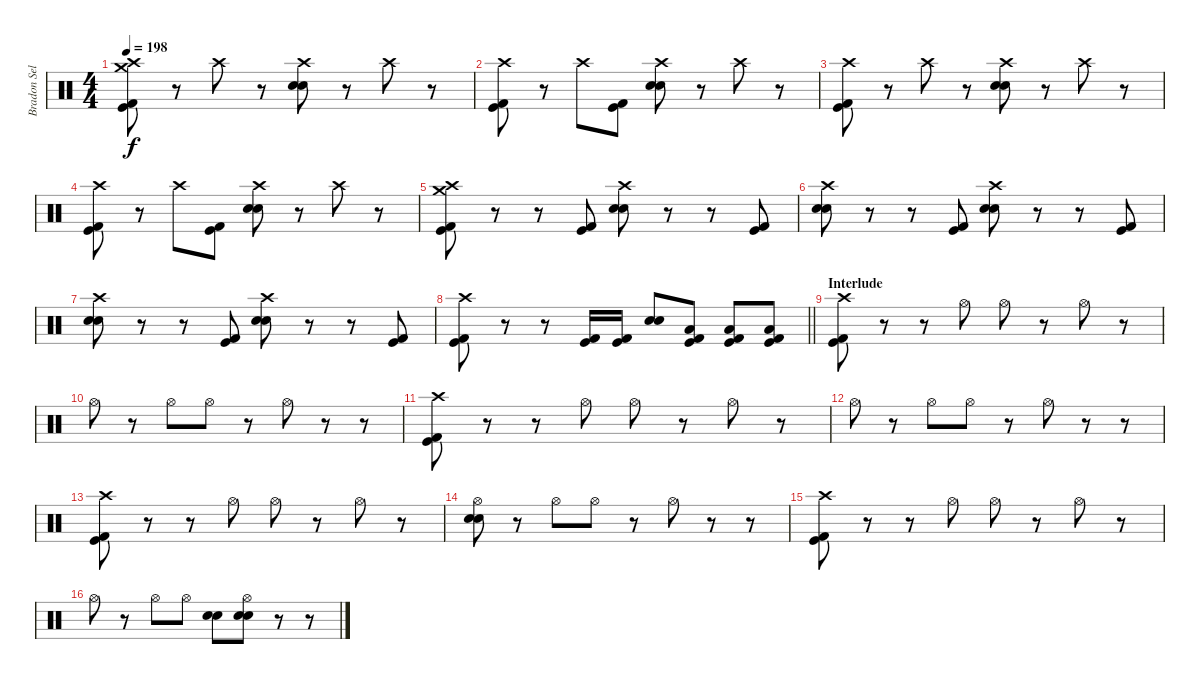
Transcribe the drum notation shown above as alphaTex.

\track ("Bradon Sellar" "Bradon Sel") {instrument percussion}
\staff {score}
\articulation defaults
\ts (4 4)
\tempo 198
\clef neutral
\ks c
("Crash medium (hit)" "Crash high (hit)" "Kick (hit) 2" "Kick (hit)").8{dy f} r.8 "Crash high (hit)".8 r.8 ("Crash high (hit)" "Electric Snare (hit)" "Snare (hit) 2").8 r.8 "Crash high (hit)".8 r.8 |
("Crash high (hit)" "Kick (hit) 2" "Kick (hit)").8 r.8 "Crash high (hit)".8 ("Kick (hit) 2" "Kick (hit)").8 ("Crash high (hit)" "Electric Snare (hit)" "Snare (hit) 2").8 r.8 "Crash high (hit)".8 r.8 |
("Crash high (hit)" "Kick (hit) 2" "Kick (hit)").8 r.8 "Crash high (hit)".8 r.8 ("Crash high (hit)" "Electric Snare (hit)" "Snare (hit) 2").8 r.8 "Crash high (hit)".8 r.8 |
("Crash high (hit)" "Kick (hit) 2" "Kick (hit)").8 r.8 "Crash high (hit)".8 ("Kick (hit) 2" "Kick (hit)").8 ("Crash high (hit)" "Electric Snare (hit)" "Snare (hit) 2").8 r.8 "Crash high (hit)".8 r.8 |
("Crash medium (hit)" "Crash high (hit)" "Kick (hit) 2" "Kick (hit)").8 r.8 r.8 ("Kick (hit) 2" "Kick (hit)").8 ("Crash high (hit)" "Electric Snare (hit)" "Snare (hit) 2").8 r.8 r.8 ("Kick (hit) 2" "Kick (hit)").8 |
("Crash high (hit)" "Electric Snare (hit)" "Snare (hit) 2").8 r.8 r.8 ("Kick (hit) 2" "Kick (hit)").8 ("Crash high (hit)" "Electric Snare (hit)" "Snare (hit) 2").8 r.8 r.8 ("Kick (hit) 2" "Kick (hit)").8 |
("Crash high (hit)" "Electric Snare (hit)" "Snare (hit) 2").8 r.8 r.8 ("Kick (hit) 2" "Kick (hit)").8 ("Crash high (hit)" "Electric Snare (hit)" "Snare (hit) 2").8 r.8 r.8 ("Kick (hit) 2" "Kick (hit)").8 |
\barLineRight lightlight
("Crash high (hit)" "Kick (hit) 2" "Kick (hit)").8 r.8 r.8 ("Kick (hit) 2" "Kick (hit)").16 ("Kick (hit) 2" "Kick (hit)").16 ("Electric Snare (hit)" "Snare (hit) 2").8 ("Kick (hit) 2" "Low Floor Tom (hit)" "Kick (hit)").8 ("Kick (hit) 2" "Low Floor Tom (hit)" "Kick (hit)").8 ("Kick (hit) 2" "Low Floor Tom (hit)" "Kick (hit)").8 |
\section ("" "Interlude")
("Crash high (hit)" "Kick (hit) 2" "Kick (hit)").8 r.8 r.8 "Hi-Hat (open)".8 "Hi-Hat (open)".8 r.8 "Hi-Hat (open)".8 r.8 |
"Hi-Hat (open)".8 r.8 "Hi-Hat (open)".8 "Hi-Hat (open)".8 r.8 "Hi-Hat (open)".8 r.8 r.8 |
("Crash high (hit)" "Kick (hit) 2" "Kick (hit)").8 r.8 r.8 "Hi-Hat (open)".8 "Hi-Hat (open)".8 r.8 "Hi-Hat (open)".8 r.8 |
"Hi-Hat (open)".8 r.8 "Hi-Hat (open)".8 "Hi-Hat (open)".8 r.8 "Hi-Hat (open)".8 r.8 r.8 |
("Crash high (hit)" "Kick (hit) 2" "Kick (hit)").8 r.8 r.8 "Hi-Hat (open)".8 "Hi-Hat (open)".8 r.8 "Hi-Hat (open)".8 r.8 |
("Hi-Hat (open)" "Electric Snare (hit)" "Snare (hit) 2").8 r.8 "Hi-Hat (open)".8 "Hi-Hat (open)".8 r.8 "Hi-Hat (open)".8 r.8 r.8 |
("Crash high (hit)" "Kick (hit) 2" "Kick (hit)").8 r.8 r.8 "Hi-Hat (open)".8 "Hi-Hat (open)".8 r.8 "Hi-Hat (open)".8 r.8 |
"Hi-Hat (open)".8 r.8 "Hi-Hat (open)".8 "Hi-Hat (open)".8 ("Electric Snare (hit)" "Snare (hit) 2").8 ("Hi-Hat (open)" "Electric Snare (hit)" "Snare (hit) 2").8 r.8 r.8
